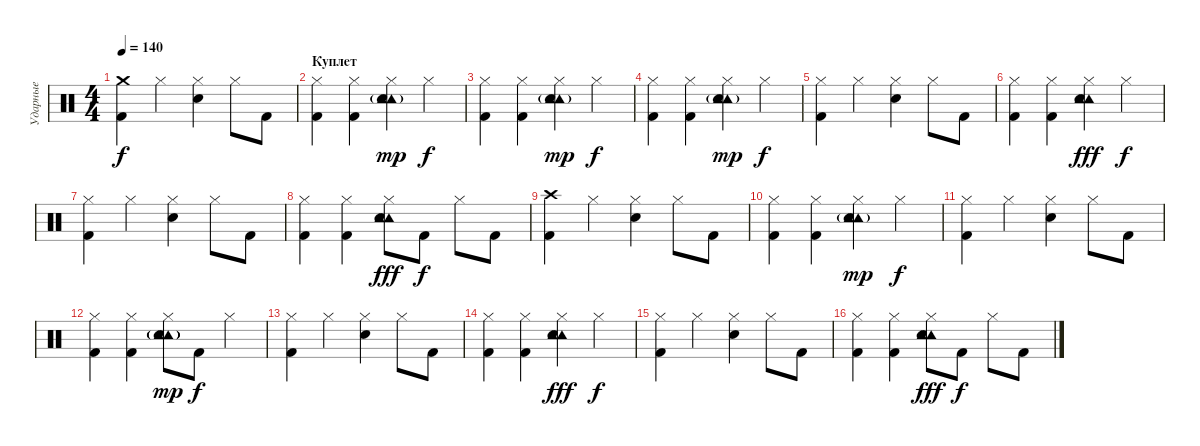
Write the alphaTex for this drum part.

\track ("Ударные" "Ударные") {instrument percussion}
\staff {score}
\articulation defaults
\ts (4 4)
\tempo 140
\clef neutral
\ks c
("Crash medium (hit)" "Kick (hit) 2").4{dy f} "Hi-Hat (closed)".4 ("Hi-Hat (closed)" "Snare (hit) 2").4 "Hi-Hat (closed)".8 "Kick (hit) 2".8 |
\section ("" "Куплет")
("Kick (hit) 2" "Hi-Hat (closed)").4 ("Kick (hit) 2" "Hi-Hat (closed)").4 ("Tambourine (hit)"{g} "Tambourine (hit)"{g} "Snare (hit) 2" "Hi-Hat (closed)").4{dy mp} "Hi-Hat (closed)".4{dy f} |
("Kick (hit) 2" "Hi-Hat (closed)").4 ("Kick (hit) 2" "Hi-Hat (closed)").4 ("Tambourine (hit)"{g} "Tambourine (hit)"{g} "Snare (hit) 2" "Hi-Hat (closed)").4{dy mp} "Hi-Hat (closed)".4{dy f} |
("Kick (hit) 2" "Hi-Hat (closed)").4 ("Kick (hit) 2" "Hi-Hat (closed)").4 ("Tambourine (hit)"{g} "Tambourine (hit)"{g} "Snare (hit) 2" "Hi-Hat (closed)").4{dy mp} "Hi-Hat (closed)".4{dy f} |
("Kick (hit) 2" "Hi-Hat (closed)").4 "Hi-Hat (closed)".4 ("Hi-Hat (closed)" "Snare (hit) 2").4 "Hi-Hat (closed)".8 "Kick (hit) 2".8 |
("Kick (hit) 2" "Hi-Hat (closed)").4 ("Kick (hit) 2" "Hi-Hat (closed)").4 ("Tambourine (hit)" "Snare (hit) 2" "Tambourine (hit)" "Hi-Hat (closed)").4{dy fff} "Hi-Hat (closed)".4{dy f} |
("Hi-Hat (closed)" "Kick (hit) 2").4 "Hi-Hat (closed)".4 ("Snare (hit) 2" "Hi-Hat (closed)").4 "Hi-Hat (closed)".8 "Kick (hit) 2".8 |
("Kick (hit) 2" "Hi-Hat (closed)").4 ("Hi-Hat (closed)" "Kick (hit) 2").4 ("Tambourine (hit)" "Hi-Hat (closed)" "Tambourine (hit)" "Snare (hit) 2").8{dy fff} "Kick (hit) 2".8{dy f} "Hi-Hat (closed)".8 "Kick (hit) 2".8 |
("Kick (hit) 2" "Crash high (hit)").4 "Hi-Hat (closed)".4 ("Hi-Hat (closed)" "Snare (hit) 2").4 "Hi-Hat (closed)".8 "Kick (hit) 2".8 |
("Kick (hit) 2" "Hi-Hat (closed)").4 ("Hi-Hat (closed)" "Kick (hit) 2").4 ("Tambourine (hit)"{g} "Tambourine (hit)"{g} "Hi-Hat (closed)" "Snare (hit) 2").4{dy mp} "Hi-Hat (closed)".4{dy f} |
("Kick (hit) 2" "Hi-Hat (closed)").4 "Hi-Hat (closed)".4 ("Hi-Hat (closed)" "Snare (hit) 2").4 "Hi-Hat (closed)".8 "Kick (hit) 2".8 |
("Hi-Hat (closed)" "Kick (hit) 2").4 ("Kick (hit) 2" "Hi-Hat (closed)").4 ("Tambourine (hit)"{g} "Snare (hit) 2" "Hi-Hat (closed)" "Tambourine (hit)"{g}).8{dy mp} "Kick (hit) 2".8{dy f} "Hi-Hat (closed)".4 |
("Hi-Hat (closed)" "Kick (hit) 2").4 "Hi-Hat (closed)".4 ("Hi-Hat (closed)" "Snare (hit) 2").4 "Hi-Hat (closed)".8 "Kick (hit) 2".8 |
("Hi-Hat (closed)" "Kick (hit) 2").4 ("Kick (hit) 2" "Hi-Hat (closed)").4 ("Hi-Hat (closed)" "Tambourine (hit)" "Snare (hit) 2" "Tambourine (hit)").4{dy fff} "Hi-Hat (closed)".4{dy f} |
("Kick (hit) 2" "Hi-Hat (closed)").4 "Hi-Hat (closed)".4 ("Hi-Hat (closed)" "Snare (hit) 2").4 "Hi-Hat (closed)".8 "Kick (hit) 2".8 |
("Hi-Hat (closed)" "Kick (hit) 2").4 ("Hi-Hat (closed)" "Kick (hit) 2").4 ("Tambourine (hit)" "Tambourine (hit)" "Hi-Hat (closed)" "Snare (hit) 2").8{dy fff} "Kick (hit) 2".8{dy f} "Hi-Hat (closed)".8 "Kick (hit) 2".8
